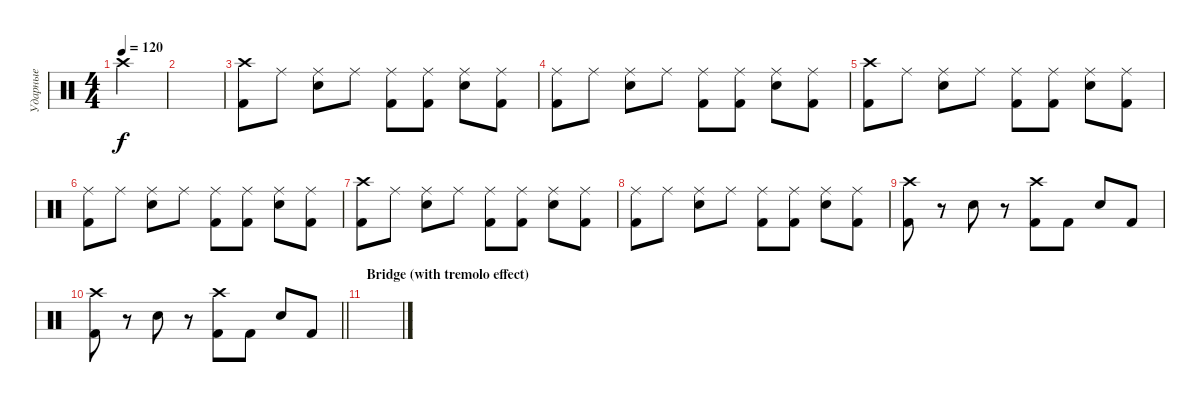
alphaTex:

\track ("Ударные" "Ударные") {instrument percussion}
\staff {score}
\articulation defaults
\ts (4 4)
\tempo 120
\clef neutral
\ks c "Crash high (hit)".4{dy f}
|
|
("Crash high (hit)" "Kick (hit) 2").8 "Ride (middle)".8 ("Ride (middle)" "Electric Snare (hit)").8 "Ride (middle)".8 ("Ride (middle)" "Kick (hit) 2").8 ("Ride (middle)" "Kick (hit) 2").8 ("Ride (middle)" "Electric Snare (hit)").8 ("Ride (middle)" "Kick (hit) 2").8 |
("Ride (middle)" "Kick (hit) 2").8 "Ride (middle)".8 ("Ride (middle)" "Electric Snare (hit)").8 "Ride (middle)".8 ("Ride (middle)" "Kick (hit) 2").8 ("Ride (middle)" "Kick (hit) 2").8 ("Ride (middle)" "Electric Snare (hit)").8 ("Ride (middle)" "Kick (hit) 2").8 |
("Crash high (hit)" "Kick (hit) 2").8 "Ride (middle)".8 ("Ride (middle)" "Electric Snare (hit)").8 "Ride (middle)".8 ("Ride (middle)" "Kick (hit) 2").8 ("Ride (middle)" "Kick (hit) 2").8 ("Ride (middle)" "Electric Snare (hit)").8 ("Ride (middle)" "Kick (hit) 2").8 |
("Ride (middle)" "Kick (hit) 2").8 "Ride (middle)".8 ("Ride (middle)" "Electric Snare (hit)").8 "Ride (middle)".8 ("Ride (middle)" "Kick (hit) 2").8 ("Ride (middle)" "Kick (hit) 2").8 ("Ride (middle)" "Electric Snare (hit)").8 ("Ride (middle)" "Kick (hit) 2").8 |
("Crash high (hit)" "Kick (hit) 2").8 "Ride (middle)".8 ("Ride (middle)" "Electric Snare (hit)").8 "Ride (middle)".8 ("Ride (middle)" "Kick (hit) 2").8 ("Ride (middle)" "Kick (hit) 2").8 ("Ride (middle)" "Electric Snare (hit)").8 ("Ride (middle)" "Kick (hit) 2").8 |
("Ride (middle)" "Kick (hit) 2").8 "Ride (middle)".8 ("Ride (middle)" "Electric Snare (hit)").8 "Ride (middle)".8 ("Ride (middle)" "Kick (hit) 2").8 ("Ride (middle)" "Kick (hit) 2").8 ("Ride (middle)" "Electric Snare (hit)").8 ("Ride (middle)" "Kick (hit) 2").8 |
("Crash high (hit)" "Kick (hit) 2").8 r.8 "Electric Snare (hit)".8 r.8 ("Crash high (hit)" "Kick (hit) 2").8 "Kick (hit) 2".8 "Electric Snare (hit)".8 "Kick (hit) 2".8 |
\barLineRight lightlight
("Crash high (hit)" "Kick (hit) 2").8 r.8 "Electric Snare (hit)".8 r.8 ("Crash high (hit)" "Kick (hit) 2").8 "Kick (hit) 2".8 "Electric Snare (hit)".8 "Kick (hit) 2".8 |
\section ("" "Bridge (with tremolo effect)")
